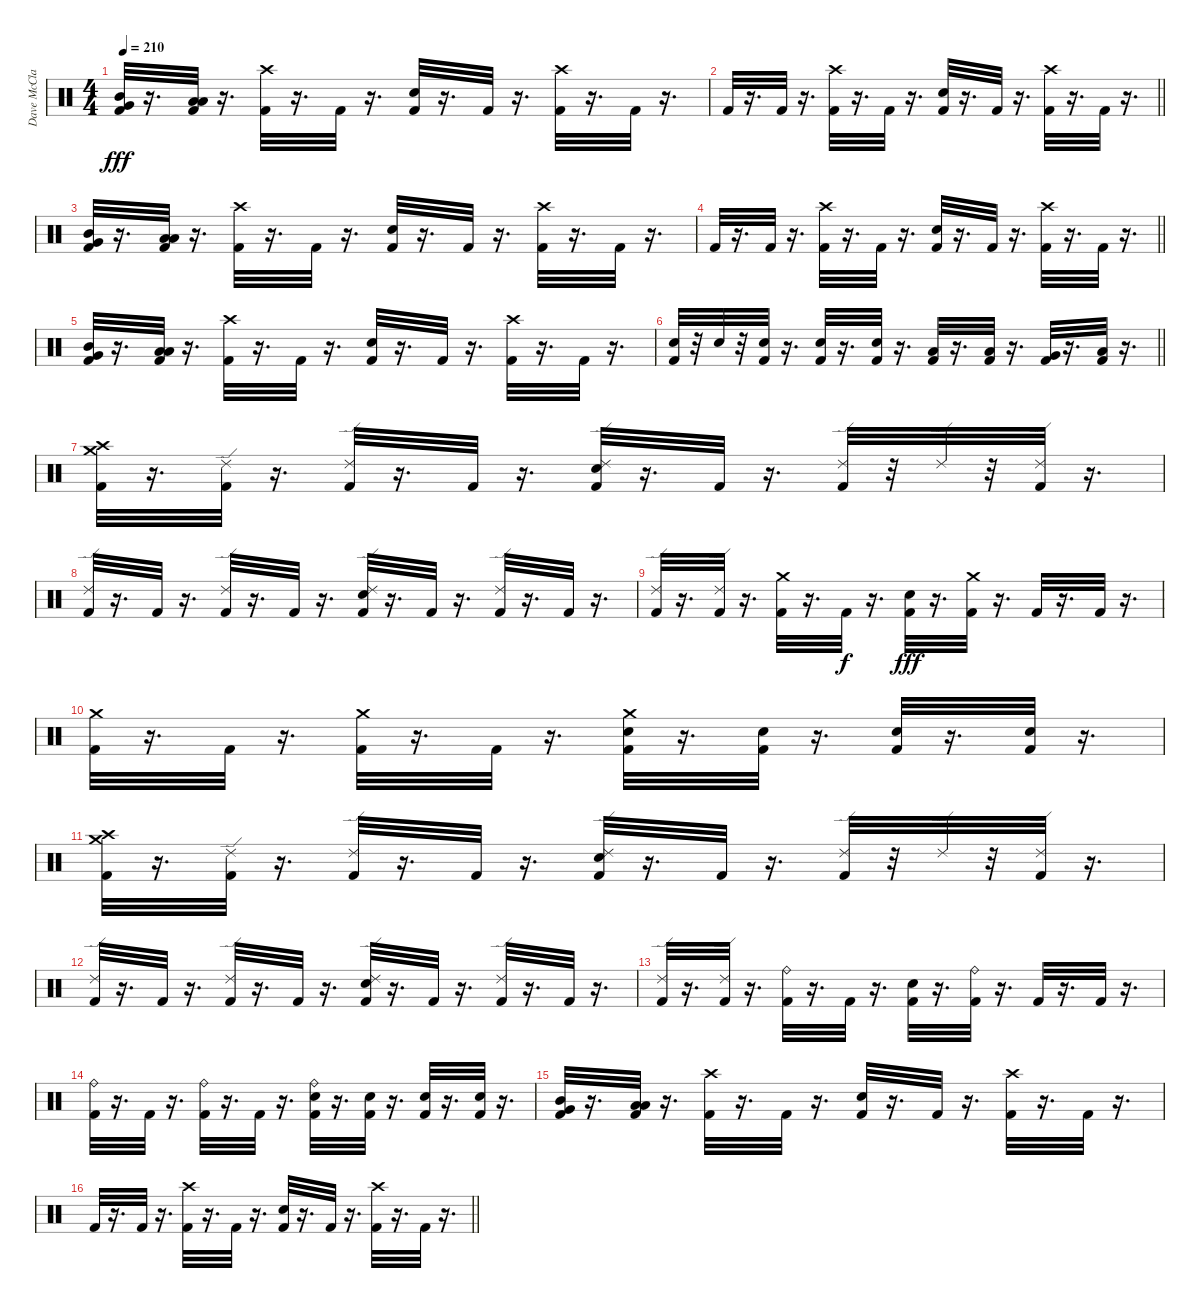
\track ("Dave McClain" "Dave McCla") {instrument percussion}
\staff {score}
\articulation defaults
\ts (4 4)
\tempo 210
\clef neutral
\ks c
("Very Low Tom (hit)" "Mid Tom (hit)" "Kick (hit) 2").32{dy fff} r.16{d} ("Low Tom (hit)" "Low Floor Tom (hit)" "Kick (hit) 2").32 r.16{d} ("Kick (hit) 2" "Crash high (hit)").32 r.16{d} "Kick (hit) 2".32 r.16{d} ("Kick (hit) 2" "Snare (hit) 2").32 r.16{d} "Kick (hit) 2".32 r.16{d} ("Kick (hit) 2" "Crash high (hit)").32 r.16{d} "Kick (hit) 2".32 r.16{d} |
\barLineRight lightlight "Kick (hit) 2".32
r.16{d} "Kick (hit) 2".32 r.16{d} ("Kick (hit) 2" "Crash high (hit)").32 r.16{d} "Kick (hit) 2".32 r.16{d} ("Kick (hit) 2" "Snare (hit) 2").32 r.16{d} "Kick (hit) 2".32 r.16{d} ("Kick (hit) 2" "Crash high (hit)").32 r.16{d} "Kick (hit) 2".32 r.16{d} |
("Very Low Tom (hit)" "Mid Tom (hit)" "Kick (hit) 2").32 r.16{d} ("Kick (hit) 2" "Low Tom (hit)" "Low Floor Tom (hit)").32 r.16{d} ("Kick (hit) 2" "Crash high (hit)").32 r.16{d} "Kick (hit) 2".32 r.16{d} ("Kick (hit) 2" "Snare (hit) 2").32 r.16{d} "Kick (hit) 2".32 r.16{d} ("Kick (hit) 2" "Crash high (hit)").32 r.16{d} "Kick (hit) 2".32 r.16{d} |
\barLineRight lightlight "Kick (hit) 2".32
r.16{d} "Kick (hit) 2".32 r.16{d} ("Kick (hit) 2" "Crash high (hit)").32 r.16{d} "Kick (hit) 2".32 r.16{d} ("Kick (hit) 2" "Snare (hit) 2").32 r.16{d} "Kick (hit) 2".32 r.16{d} ("Kick (hit) 2" "Crash high (hit)").32 r.16{d} "Kick (hit) 2".32 r.16{d} |
("Very Low Tom (hit)" "Mid Tom (hit)" "Kick (hit) 2").32 r.16{d} ("Low Tom (hit)" "Low Floor Tom (hit)" "Kick (hit) 2").32 r.16{d} ("Kick (hit) 2" "Crash high (hit)").32 r.16{d} "Kick (hit) 2".32 r.16{d} ("Kick (hit) 2" "Snare (hit) 2").32 r.16{d} "Kick (hit) 2".32 r.16{d} ("Kick (hit) 2" "Crash high (hit)").32 r.16{d} "Kick (hit) 2".32 r.16{d} |
\barLineRight lightlight
("Snare (hit) 2" "Kick (hit) 2").32 r.32 "Snare (hit) 2".32 r.32 ("Snare (hit) 2" "Kick (hit) 2").32 r.16{d} ("Snare (hit) 2" "Kick (hit) 2").32 r.16{d} ("Snare (hit) 2" "Kick (hit) 2").32 r.16{d} ("Low Tom (hit)" "Kick (hit) 2").32 r.16{d} ("Low Tom (hit)" "Kick (hit) 2").32 r.16{d} ("Very Low Tom (hit)" "Kick (hit) 2").32 r.16{d} ("Low Floor Tom (hit)" "Kick (hit) 2").32 r.16{d} |
("Crash medium (hit)" "Crash high (hit)" "Kick (hit) 2").32 r.16{d} ("Ride (edge) 2" "Kick (hit) 2").32 r.16{d} ("Ride (edge) 2" "Kick (hit) 2").32 r.16{d} "Kick (hit) 2".32 r.16{d} ("Ride (edge) 2" "Snare (hit) 2" "Kick (hit) 2").32 r.16{d} "Kick (hit) 2".32 r.16{d} ("Ride (edge) 2" "Kick (hit) 2").32 r.32 "Ride (edge) 2".32 r.32 ("Ride (edge) 2" "Kick (hit) 2").32 r.16{d} |
("Ride (edge) 2" "Kick (hit) 2").32 r.16{d} "Kick (hit) 2".32 r.16{d} ("Ride (edge) 2" "Kick (hit) 2").32 r.16{d} "Kick (hit) 2".32 r.16{d} ("Ride (edge) 2" "Snare (hit) 2" "Kick (hit) 2").32 r.16{d} "Kick (hit) 2".32 r.16{d} ("Ride (edge) 2" "Kick (hit) 2").32 r.16{d} "Kick (hit) 2".32 r.16{d} |
("Ride (edge) 2" "Kick (hit) 2").32 r.16{d} ("Ride (edge) 2" "Kick (hit) 2").32 r.16{d} ("Crash medium (hit)" "Kick (hit) 2").32 r.16{d} "Kick (hit) 2".32{dy f} r.16{d} ("Snare (hit) 2" "Kick (hit) 2").32{dy fff} r.16{d} ("Crash medium (hit)" "Kick (hit) 2").32 r.16{d} "Kick (hit) 2".32 r.16{d} "Kick (hit) 2".32 r.16{d} |
("Crash medium (hit)" "Kick (hit) 2").32 r.16{d} "Kick (hit) 2".32 r.16{d} ("Crash medium (hit)" "Kick (hit) 2").32 r.16{d} "Kick (hit) 2".32 r.16{d} ("Crash medium (hit)" "Snare (hit) 2" "Kick (hit) 2").32 r.16{d} ("Snare (hit) 2" "Kick (hit) 2").32 r.16{d} ("Snare (hit) 2" "Kick (hit) 2").32 r.16{d} ("Snare (hit) 2" "Kick (hit) 2").32 r.16{d} |
("Crash medium (hit)" "Crash high (hit)" "Kick (hit) 2").32 r.16{d} ("Ride (edge) 2" "Kick (hit) 2").32 r.16{d} ("Ride (edge) 2" "Kick (hit) 2").32 r.16{d} "Kick (hit) 2".32 r.16{d} ("Ride (edge) 2" "Snare (hit) 2" "Kick (hit) 2").32 r.16{d} "Kick (hit) 2".32 r.16{d} ("Ride (edge) 2" "Kick (hit) 2").32 r.32 "Ride (edge) 2".32 r.32 ("Ride (edge) 2" "Kick (hit) 2").32 r.16{d} |
("Ride (edge) 2" "Kick (hit) 2").32 r.16{d} "Kick (hit) 2".32 r.16{d} ("Ride (edge) 2" "Kick (hit) 2").32 r.16{d} "Kick (hit) 2".32 r.16{d} ("Ride (edge) 2" "Snare (hit) 2" "Kick (hit) 2").32 r.16{d} "Kick (hit) 2".32 r.16{d} ("Ride (edge) 2" "Kick (hit) 2").32 r.16{d} "Kick (hit) 2".32 r.16{d} |
("Ride (edge) 2" "Kick (hit) 2").32 r.16{d} ("Ride (edge) 2" "Kick (hit) 2").32 r.16{d} ("Ride (bell)" "Kick (hit) 2").32 r.16{d} "Kick (hit) 2".32 r.16{d} ("Snare (hit) 2" "Kick (hit) 2").32 r.16{d} ("Ride (bell)" "Kick (hit) 2").32 r.16{d} "Kick (hit) 2".32 r.16{d} "Kick (hit) 2".32 r.16{d} |
("Ride (bell)" "Kick (hit) 2").32 r.16{d} "Kick (hit) 2".32 r.16{d} ("Ride (bell)" "Kick (hit) 2").32 r.16{d} "Kick (hit) 2".32 r.16{d} ("Ride (bell)" "Snare (hit) 2" "Kick (hit) 2").32 r.16{d} ("Snare (hit) 2" "Kick (hit) 2").32 r.16{d} ("Snare (hit) 2" "Kick (hit) 2").32 r.16{d} ("Snare (hit) 2" "Kick (hit) 2").32 r.16{d} |
("Very Low Tom (hit)" "Mid Tom (hit)" "Kick (hit) 2").32 r.16{d} ("Kick (hit) 2" "Low Tom (hit)" "Low Floor Tom (hit)").32 r.16{d} ("Kick (hit) 2" "Crash high (hit)").32 r.16{d} "Kick (hit) 2".32 r.16{d} ("Kick (hit) 2" "Snare (hit) 2").32 r.16{d} "Kick (hit) 2".32 r.16{d} ("Kick (hit) 2" "Crash high (hit)").32 r.16{d} "Kick (hit) 2".32 r.16{d} |
\barLineRight lightlight "Kick (hit) 2".32
r.16{d} "Kick (hit) 2".32 r.16{d} ("Kick (hit) 2" "Crash high (hit)").32 r.16{d} "Kick (hit) 2".32 r.16{d} ("Kick (hit) 2" "Snare (hit) 2").32 r.16{d} "Kick (hit) 2".32 r.16{d} ("Kick (hit) 2" "Crash high (hit)").32 r.16{d} "Kick (hit) 2".32 r.16{d}
